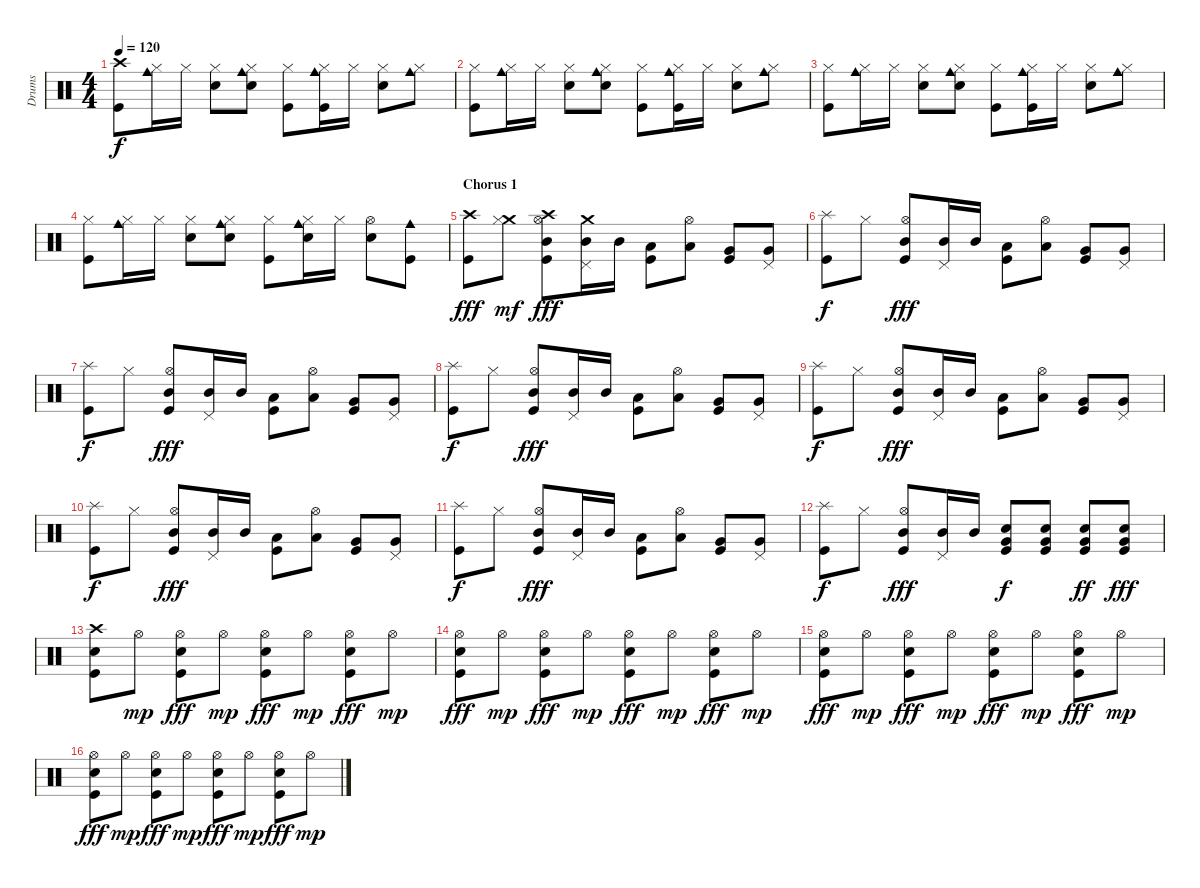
\track ("Drums" "Drums") {instrument percussion}
\staff {score}
\articulation defaults
\ts (4 4)
\tempo 120
\clef neutral
\ks c
("Crash high (hit)" "Kick (hit)").8{dy f} ("Cowbell medium (hit)" "Hi-Hat (closed)").16 "Hi-Hat (closed)".16 ("Hi-Hat (closed)" "Electric Snare (hit)").8 ("Cowbell medium (hit)" "Hi-Hat (closed)" "Electric Snare (hit)").8 ("Hi-Hat (closed)" "Kick (hit)").8 ("Cowbell medium (hit)" "Hi-Hat (closed)" "Kick (hit)").16 "Hi-Hat (closed)".16 ("Hi-Hat (closed)" "Electric Snare (hit)").8 ("Cowbell medium (hit)" "Hi-Hat (closed)").8 |
("Hi-Hat (closed)" "Kick (hit)").8 ("Cowbell medium (hit)" "Hi-Hat (closed)").16 "Hi-Hat (closed)".16 ("Hi-Hat (closed)" "Electric Snare (hit)").8 ("Cowbell medium (hit)" "Hi-Hat (closed)" "Electric Snare (hit)").8 ("Hi-Hat (closed)" "Kick (hit)").8 ("Cowbell medium (hit)" "Hi-Hat (closed)" "Kick (hit)").16 "Hi-Hat (closed)".16 ("Hi-Hat (closed)" "Electric Snare (hit)").8 ("Cowbell medium (hit)" "Hi-Hat (closed)").8 |
("Hi-Hat (closed)" "Kick (hit)").8 ("Cowbell medium (hit)" "Hi-Hat (closed)").16 "Hi-Hat (closed)".16 ("Hi-Hat (closed)" "Electric Snare (hit)").8 ("Cowbell medium (hit)" "Hi-Hat (closed)" "Electric Snare (hit)").8 ("Hi-Hat (closed)" "Kick (hit)").8 ("Cowbell medium (hit)" "Hi-Hat (closed)" "Kick (hit)").16 "Hi-Hat (closed)".16 ("Hi-Hat (closed)" "Electric Snare (hit)").8 ("Cowbell medium (hit)" "Hi-Hat (closed)").8 |
("Hi-Hat (closed)" "Kick (hit)").8 ("Cowbell medium (hit)" "Hi-Hat (closed)").16 "Hi-Hat (closed)".16 ("Hi-Hat (closed)" "Electric Snare (hit)").8 ("Cowbell medium (hit)" "Hi-Hat (closed)" "Electric Snare (hit)").8 ("Hi-Hat (closed)" "Kick (hit)").8 ("Cowbell medium (hit)" "Hi-Hat (closed)" "Electric Snare (hit)").16 "Hi-Hat (closed)".16 ("Hi-Hat (open)" "Electric Snare (hit)").8 ("Cowbell medium (hit)" "Kick (hit)").8 |
\section ("" "Chorus 1")
("Crash high (hit)" "Kick (hit)").8{dy fff volume 10} ("Crash medium (hit)" "Hi-Hat (closed)").8{dy mf} ("Crash high (hit)" "Hi-Hat (open)" "Mid Tom (hit)" "Kick (hit)").8{dy fff} ("Crash medium (hit)" "Pedal Hi-Hat (hit)" "Mid Tom (hit)").16 "Mid Tom (hit)".16 ("Low Tom (hit)" "Kick (hit)").8 ("Hi-Hat (open)" "Low Tom (hit)").8 ("Very Low Tom (hit)" "Kick (hit)").8 ("Pedal Hi-Hat (hit)" "Very Low Tom (hit)").8 |
("Splash (hit)" "Kick (hit)").8{dy f} "Hi-Hat (closed)".8 ("Hi-Hat (open)" "Mid Tom (hit)" "Kick (hit)").8{dy fff} ("Pedal Hi-Hat (hit)" "Mid Tom (hit)").16 "Mid Tom (hit)".16 ("Low Tom (hit)" "Kick (hit)").8 ("Hi-Hat (open)" "Low Tom (hit)").8 ("Very Low Tom (hit)" "Kick (hit)").8 ("Pedal Hi-Hat (hit)" "Very Low Tom (hit)").8 |
("Splash (hit)" "Kick (hit)").8{dy f} "Hi-Hat (closed)".8 ("Hi-Hat (open)" "Mid Tom (hit)" "Kick (hit)").8{dy fff} ("Pedal Hi-Hat (hit)" "Mid Tom (hit)").16 "Mid Tom (hit)".16 ("Low Tom (hit)" "Kick (hit)").8 ("Hi-Hat (open)" "Low Tom (hit)").8 ("Very Low Tom (hit)" "Kick (hit)").8 ("Pedal Hi-Hat (hit)" "Very Low Tom (hit)").8 |
("Splash (hit)" "Kick (hit)").8{dy f} "Hi-Hat (closed)".8 ("Hi-Hat (open)" "Mid Tom (hit)" "Kick (hit)").8{dy fff} ("Pedal Hi-Hat (hit)" "Mid Tom (hit)").16 "Mid Tom (hit)".16 ("Low Tom (hit)" "Kick (hit)").8 ("Hi-Hat (open)" "Low Tom (hit)").8 ("Very Low Tom (hit)" "Kick (hit)").8 ("Pedal Hi-Hat (hit)" "Very Low Tom (hit)").8 |
("Splash (hit)" "Kick (hit)").8{dy f} "Hi-Hat (closed)".8 ("Hi-Hat (open)" "Mid Tom (hit)" "Kick (hit)").8{dy fff} ("Pedal Hi-Hat (hit)" "Mid Tom (hit)").16 "Mid Tom (hit)".16 ("Low Tom (hit)" "Kick (hit)").8 ("Hi-Hat (open)" "Low Tom (hit)").8 ("Very Low Tom (hit)" "Kick (hit)").8 ("Pedal Hi-Hat (hit)" "Very Low Tom (hit)").8 |
("Splash (hit)" "Kick (hit)").8{dy f} "Hi-Hat (closed)".8 ("Hi-Hat (open)" "Mid Tom (hit)" "Kick (hit)").8{dy fff} ("Pedal Hi-Hat (hit)" "Mid Tom (hit)").16 "Mid Tom (hit)".16 ("Low Tom (hit)" "Kick (hit)").8 ("Hi-Hat (open)" "Low Tom (hit)").8 ("Very Low Tom (hit)" "Kick (hit)").8 ("Pedal Hi-Hat (hit)" "Very Low Tom (hit)").8 |
("Splash (hit)" "Kick (hit)").8{dy f} "Hi-Hat (closed)".8 ("Hi-Hat (open)" "Mid Tom (hit)" "Kick (hit)").8{dy fff} ("Pedal Hi-Hat (hit)" "Mid Tom (hit)").16 "Mid Tom (hit)".16 ("Low Tom (hit)" "Kick (hit)").8 ("Hi-Hat (open)" "Low Tom (hit)").8 ("Very Low Tom (hit)" "Kick (hit)").8 ("Pedal Hi-Hat (hit)" "Very Low Tom (hit)").8 |
("Splash (hit)" "Kick (hit)").8{dy f} "Hi-Hat (closed)".8 ("Hi-Hat (open)" "Mid Tom (hit)" "Kick (hit)").8{dy fff} ("Pedal Hi-Hat (hit)" "Mid Tom (hit)").16 "Mid Tom (hit)".16 ("Very Low Tom (hit)" "Electric Snare (hit)" "Kick (hit)").8{dy f volume 13} ("Very Low Tom (hit)" "Electric Snare (hit)" "Kick (hit)").8 ("Very Low Tom (hit)" "Electric Snare (hit)" "Kick (hit)").8{dy ff} ("Very Low Tom (hit)" "Electric Snare (hit)" "Kick (hit)").8{dy fff} |
("Crash high (hit)" "Electric Snare (hit)" "Kick (hit)").8 "Hi-Hat (open)".8{dy mp} ("Hi-Hat (open)" "Electric Snare (hit)" "Kick (hit)").8{dy fff} "Hi-Hat (open)".8{dy mp} ("Hi-Hat (open)" "Electric Snare (hit)" "Kick (hit)").8{dy fff} "Hi-Hat (open)".8{dy mp} ("Hi-Hat (open)" "Electric Snare (hit)" "Kick (hit)").8{dy fff} "Hi-Hat (open)".8{dy mp} |
("Hi-Hat (open)" "Electric Snare (hit)" "Kick (hit)").8{dy fff} "Hi-Hat (open)".8{dy mp} ("Hi-Hat (open)" "Electric Snare (hit)" "Kick (hit)").8{dy fff} "Hi-Hat (open)".8{dy mp} ("Hi-Hat (open)" "Electric Snare (hit)" "Kick (hit)").8{dy fff} "Hi-Hat (open)".8{dy mp} ("Hi-Hat (open)" "Electric Snare (hit)" "Kick (hit)").8{dy fff} "Hi-Hat (open)".8{dy mp} |
("Hi-Hat (open)" "Electric Snare (hit)" "Kick (hit)").8{dy fff} "Hi-Hat (open)".8{dy mp} ("Hi-Hat (open)" "Electric Snare (hit)" "Kick (hit)").8{dy fff} "Hi-Hat (open)".8{dy mp} ("Hi-Hat (open)" "Electric Snare (hit)" "Kick (hit)").8{dy fff} "Hi-Hat (open)".8{dy mp} ("Hi-Hat (open)" "Electric Snare (hit)" "Kick (hit)").8{dy fff} "Hi-Hat (open)".8{dy mp} |
("Hi-Hat (open)" "Electric Snare (hit)" "Kick (hit)").8{dy fff} "Hi-Hat (open)".8{dy mp} ("Hi-Hat (open)" "Electric Snare (hit)" "Kick (hit)").8{dy fff} "Hi-Hat (open)".8{dy mp} ("Hi-Hat (open)" "Electric Snare (hit)" "Kick (hit)").8{dy fff} "Hi-Hat (open)".8{dy mp} ("Hi-Hat (open)" "Electric Snare (hit)" "Kick (hit)").8{dy fff} "Hi-Hat (open)".8{dy mp}
